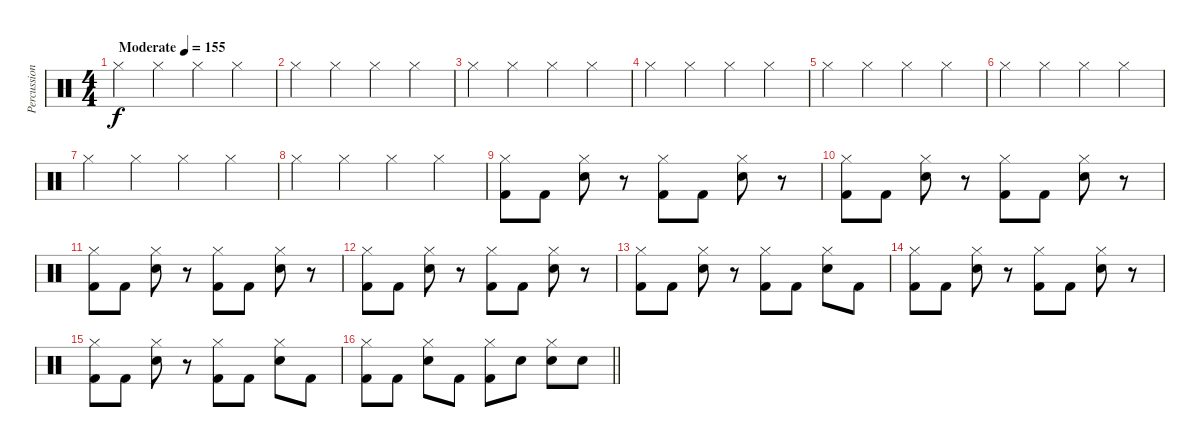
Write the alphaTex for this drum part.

\track ("Percussions" "Percussion") {mute instrument percussion}
\staff {score}
\articulation defaults
\ts (4 4)
\tempo (155 "Moderate")
\clef neutral
\ks c "Hi-Hat (closed)".4{dy f} "Hi-Hat (closed)".4 "Hi-Hat (closed)".4 "Hi-Hat (closed)".4
|
"Hi-Hat (closed)".4 "Hi-Hat (closed)".4 "Hi-Hat (closed)".4 "Hi-Hat (closed)".4 |
"Hi-Hat (closed)".4 "Hi-Hat (closed)".4 "Hi-Hat (closed)".4 "Hi-Hat (closed)".4 |
"Hi-Hat (closed)".4 "Hi-Hat (closed)".4 "Hi-Hat (closed)".4 "Hi-Hat (closed)".4 |
"Hi-Hat (closed)".4 "Hi-Hat (closed)".4 "Hi-Hat (closed)".4 "Hi-Hat (closed)".4 |
"Hi-Hat (closed)".4 "Hi-Hat (closed)".4 "Hi-Hat (closed)".4 "Hi-Hat (closed)".4 |
"Hi-Hat (closed)".4 "Hi-Hat (closed)".4 "Hi-Hat (closed)".4 "Hi-Hat (closed)".4 |
"Hi-Hat (closed)".4 "Hi-Hat (closed)".4 "Hi-Hat (closed)".4 "Hi-Hat (closed)".4 |
("Hi-Hat (closed)" "Kick (hit) 2").8 "Kick (hit) 2".8 ("Hi-Hat (closed)" "Electric Snare (hit)").8 r.8 ("Hi-Hat (closed)" "Kick (hit) 2").8 "Kick (hit) 2".8 ("Hi-Hat (closed)" "Electric Snare (hit)").8 r.8 |
("Hi-Hat (closed)" "Kick (hit) 2").8 "Kick (hit) 2".8 ("Hi-Hat (closed)" "Electric Snare (hit)").8 r.8 ("Hi-Hat (closed)" "Kick (hit) 2").8 "Kick (hit) 2".8 ("Hi-Hat (closed)" "Electric Snare (hit)").8 r.8 |
("Hi-Hat (closed)" "Kick (hit) 2").8 "Kick (hit) 2".8 ("Hi-Hat (closed)" "Electric Snare (hit)").8 r.8 ("Hi-Hat (closed)" "Kick (hit) 2").8 "Kick (hit) 2".8 ("Hi-Hat (closed)" "Electric Snare (hit)").8 r.8 |
("Hi-Hat (closed)" "Kick (hit) 2").8 "Kick (hit) 2".8 ("Hi-Hat (closed)" "Electric Snare (hit)").8 r.8 ("Hi-Hat (closed)" "Kick (hit) 2").8 "Kick (hit) 2".8 ("Hi-Hat (closed)" "Electric Snare (hit)").8 r.8 |
("Hi-Hat (closed)" "Kick (hit) 2").8 "Kick (hit) 2".8 ("Hi-Hat (closed)" "Electric Snare (hit)").8 r.8 ("Hi-Hat (closed)" "Kick (hit) 2").8 "Kick (hit) 2".8 ("Hi-Hat (closed)" "Electric Snare (hit)").8 "Kick (hit) 2".8 |
("Hi-Hat (closed)" "Kick (hit) 2").8 "Kick (hit) 2".8 ("Hi-Hat (closed)" "Electric Snare (hit)").8 r.8 ("Hi-Hat (closed)" "Kick (hit) 2").8 "Kick (hit) 2".8 ("Hi-Hat (closed)" "Electric Snare (hit)").8 r.8 |
("Hi-Hat (closed)" "Kick (hit) 2").8 "Kick (hit) 2".8 ("Hi-Hat (closed)" "Electric Snare (hit)").8 r.8 ("Hi-Hat (closed)" "Kick (hit) 2").8 "Kick (hit) 2".8 ("Hi-Hat (closed)" "Electric Snare (hit)").8 "Kick (hit) 2".8 |
\barLineRight lightlight
("Hi-Hat (closed)" "Kick (hit) 2").8 "Kick (hit) 2".8 ("Hi-Hat (closed)" "Electric Snare (hit)").8 "Kick (hit) 2".8 ("Hi-Hat (closed)" "Kick (hit) 2").8 "Electric Snare (hit)".8 ("Hi-Hat (closed)" "Electric Snare (hit)").8 "Electric Snare (hit)".8
